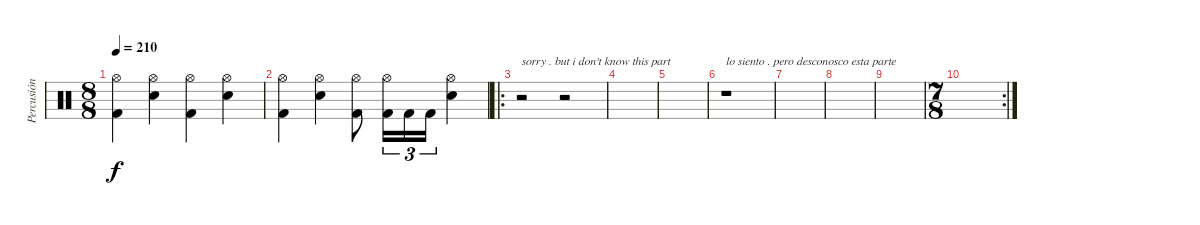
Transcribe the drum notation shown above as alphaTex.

\track ("Percusión" "Percusión") {instrument percussion}
\staff {score}
\articulation defaults
\ts (8 8)
\tempo 210
\clef neutral
\ks c
("Hi-Hat (open)" "Kick (hit) 2").4{dy f} ("Hi-Hat (open)" "Electric Snare (hit)").4 ("Hi-Hat (open)" "Kick (hit) 2").4 ("Hi-Hat (open)" "Electric Snare (hit)").4 |
("Hi-Hat (open)" "Kick (hit) 2").4 ("Hi-Hat (open)" "Electric Snare (hit)").4 ("Hi-Hat (open)" "Kick (hit) 2").8 ("Hi-Hat (open)" "Kick (hit) 2").16{tu (3 2)} "Kick (hit) 2".16{tu (3 2)} "Kick (hit) 2".16{tu (3 2)} ("Hi-Hat (open)" "Electric Snare (hit)").4 |
\ro
r.2{txt "sorry . but i don't know this part"} r.2 |
|
|
r.1{txt "lo siento . pero desconosco esta parte"} |
|
|
|
\rc 2
\ts (7 8)
